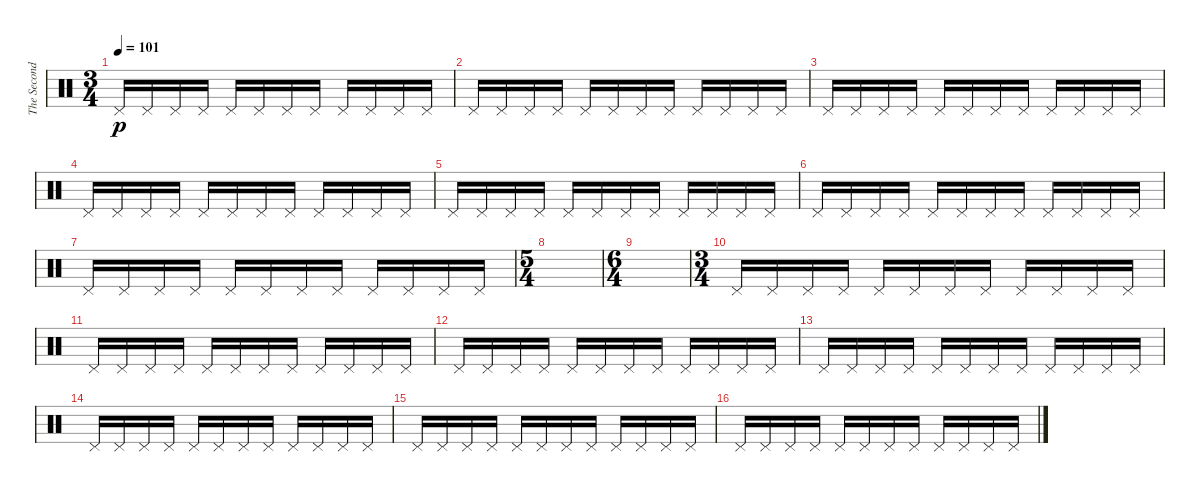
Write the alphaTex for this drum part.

\track ("The Second Drummer" "The Second") {instrument percussion}
\staff {score}
\articulation defaults
\ts (3 4)
\tempo 101
\clef neutral
\ks c "Pedal Hi-Hat (hit)".16{dy p} "Pedal Hi-Hat (hit)".16 "Pedal Hi-Hat (hit)".16 "Pedal Hi-Hat (hit)".16 "Pedal Hi-Hat (hit)".16 "Pedal Hi-Hat (hit)".16 "Pedal Hi-Hat (hit)".16 "Pedal Hi-Hat (hit)".16 "Pedal Hi-Hat (hit)".16 "Pedal Hi-Hat (hit)".16 "Pedal Hi-Hat (hit)".16 "Pedal Hi-Hat (hit)".16
|
"Pedal Hi-Hat (hit)".16 "Pedal Hi-Hat (hit)".16 "Pedal Hi-Hat (hit)".16 "Pedal Hi-Hat (hit)".16 "Pedal Hi-Hat (hit)".16 "Pedal Hi-Hat (hit)".16 "Pedal Hi-Hat (hit)".16 "Pedal Hi-Hat (hit)".16 "Pedal Hi-Hat (hit)".16 "Pedal Hi-Hat (hit)".16 "Pedal Hi-Hat (hit)".16 "Pedal Hi-Hat (hit)".16 |
"Pedal Hi-Hat (hit)".16 "Pedal Hi-Hat (hit)".16 "Pedal Hi-Hat (hit)".16 "Pedal Hi-Hat (hit)".16 "Pedal Hi-Hat (hit)".16 "Pedal Hi-Hat (hit)".16 "Pedal Hi-Hat (hit)".16 "Pedal Hi-Hat (hit)".16 "Pedal Hi-Hat (hit)".16 "Pedal Hi-Hat (hit)".16 "Pedal Hi-Hat (hit)".16 "Pedal Hi-Hat (hit)".16 |
"Pedal Hi-Hat (hit)".16 "Pedal Hi-Hat (hit)".16 "Pedal Hi-Hat (hit)".16 "Pedal Hi-Hat (hit)".16 "Pedal Hi-Hat (hit)".16 "Pedal Hi-Hat (hit)".16 "Pedal Hi-Hat (hit)".16 "Pedal Hi-Hat (hit)".16 "Pedal Hi-Hat (hit)".16 "Pedal Hi-Hat (hit)".16 "Pedal Hi-Hat (hit)".16 "Pedal Hi-Hat (hit)".16 |
"Pedal Hi-Hat (hit)".16 "Pedal Hi-Hat (hit)".16 "Pedal Hi-Hat (hit)".16 "Pedal Hi-Hat (hit)".16 "Pedal Hi-Hat (hit)".16 "Pedal Hi-Hat (hit)".16 "Pedal Hi-Hat (hit)".16 "Pedal Hi-Hat (hit)".16 "Pedal Hi-Hat (hit)".16 "Pedal Hi-Hat (hit)".16 "Pedal Hi-Hat (hit)".16 "Pedal Hi-Hat (hit)".16 |
"Pedal Hi-Hat (hit)".16 "Pedal Hi-Hat (hit)".16 "Pedal Hi-Hat (hit)".16 "Pedal Hi-Hat (hit)".16 "Pedal Hi-Hat (hit)".16 "Pedal Hi-Hat (hit)".16 "Pedal Hi-Hat (hit)".16 "Pedal Hi-Hat (hit)".16 "Pedal Hi-Hat (hit)".16 "Pedal Hi-Hat (hit)".16 "Pedal Hi-Hat (hit)".16 "Pedal Hi-Hat (hit)".16 |
"Pedal Hi-Hat (hit)".16 "Pedal Hi-Hat (hit)".16 "Pedal Hi-Hat (hit)".16 "Pedal Hi-Hat (hit)".16 "Pedal Hi-Hat (hit)".16 "Pedal Hi-Hat (hit)".16 "Pedal Hi-Hat (hit)".16 "Pedal Hi-Hat (hit)".16 "Pedal Hi-Hat (hit)".16 "Pedal Hi-Hat (hit)".16 "Pedal Hi-Hat (hit)".16 "Pedal Hi-Hat (hit)".16 |
\ts (5 4)
|
\ts (6 4)
|
\ts (3 4)
"Pedal Hi-Hat (hit)".16 "Pedal Hi-Hat (hit)".16 "Pedal Hi-Hat (hit)".16 "Pedal Hi-Hat (hit)".16 "Pedal Hi-Hat (hit)".16 "Pedal Hi-Hat (hit)".16 "Pedal Hi-Hat (hit)".16 "Pedal Hi-Hat (hit)".16 "Pedal Hi-Hat (hit)".16 "Pedal Hi-Hat (hit)".16 "Pedal Hi-Hat (hit)".16 "Pedal Hi-Hat (hit)".16 |
"Pedal Hi-Hat (hit)".16 "Pedal Hi-Hat (hit)".16 "Pedal Hi-Hat (hit)".16 "Pedal Hi-Hat (hit)".16 "Pedal Hi-Hat (hit)".16 "Pedal Hi-Hat (hit)".16 "Pedal Hi-Hat (hit)".16 "Pedal Hi-Hat (hit)".16 "Pedal Hi-Hat (hit)".16 "Pedal Hi-Hat (hit)".16 "Pedal Hi-Hat (hit)".16 "Pedal Hi-Hat (hit)".16 |
"Pedal Hi-Hat (hit)".16 "Pedal Hi-Hat (hit)".16 "Pedal Hi-Hat (hit)".16 "Pedal Hi-Hat (hit)".16 "Pedal Hi-Hat (hit)".16 "Pedal Hi-Hat (hit)".16 "Pedal Hi-Hat (hit)".16 "Pedal Hi-Hat (hit)".16 "Pedal Hi-Hat (hit)".16 "Pedal Hi-Hat (hit)".16 "Pedal Hi-Hat (hit)".16 "Pedal Hi-Hat (hit)".16 |
"Pedal Hi-Hat (hit)".16 "Pedal Hi-Hat (hit)".16 "Pedal Hi-Hat (hit)".16 "Pedal Hi-Hat (hit)".16 "Pedal Hi-Hat (hit)".16 "Pedal Hi-Hat (hit)".16 "Pedal Hi-Hat (hit)".16 "Pedal Hi-Hat (hit)".16 "Pedal Hi-Hat (hit)".16 "Pedal Hi-Hat (hit)".16 "Pedal Hi-Hat (hit)".16 "Pedal Hi-Hat (hit)".16 |
"Pedal Hi-Hat (hit)".16 "Pedal Hi-Hat (hit)".16 "Pedal Hi-Hat (hit)".16 "Pedal Hi-Hat (hit)".16 "Pedal Hi-Hat (hit)".16 "Pedal Hi-Hat (hit)".16 "Pedal Hi-Hat (hit)".16 "Pedal Hi-Hat (hit)".16 "Pedal Hi-Hat (hit)".16 "Pedal Hi-Hat (hit)".16 "Pedal Hi-Hat (hit)".16 "Pedal Hi-Hat (hit)".16 |
"Pedal Hi-Hat (hit)".16 "Pedal Hi-Hat (hit)".16 "Pedal Hi-Hat (hit)".16 "Pedal Hi-Hat (hit)".16 "Pedal Hi-Hat (hit)".16 "Pedal Hi-Hat (hit)".16 "Pedal Hi-Hat (hit)".16 "Pedal Hi-Hat (hit)".16 "Pedal Hi-Hat (hit)".16 "Pedal Hi-Hat (hit)".16 "Pedal Hi-Hat (hit)".16 "Pedal Hi-Hat (hit)".16 |
"Pedal Hi-Hat (hit)".16 "Pedal Hi-Hat (hit)".16 "Pedal Hi-Hat (hit)".16 "Pedal Hi-Hat (hit)".16 "Pedal Hi-Hat (hit)".16 "Pedal Hi-Hat (hit)".16 "Pedal Hi-Hat (hit)".16 "Pedal Hi-Hat (hit)".16 "Pedal Hi-Hat (hit)".16 "Pedal Hi-Hat (hit)".16 "Pedal Hi-Hat (hit)".16 "Pedal Hi-Hat (hit)".16
